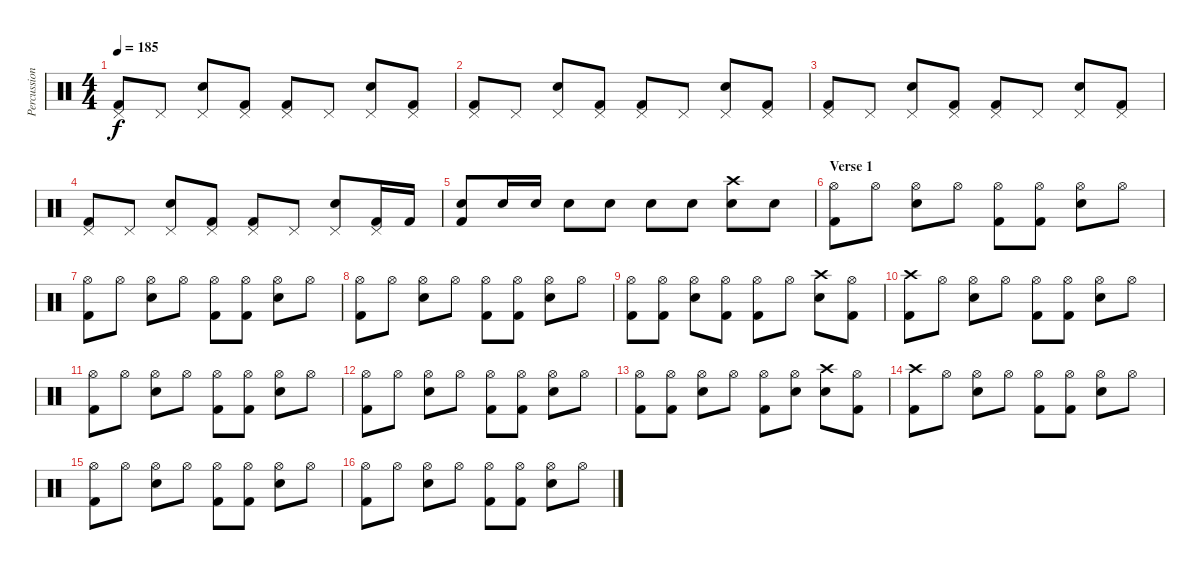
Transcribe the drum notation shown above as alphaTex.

\track ("Percussions" "Percussion") {instrument percussion}
\staff {score}
\articulation defaults
\ts (4 4)
\tempo 185
\clef neutral
\ks c
("Pedal Hi-Hat (hit)" "Kick (hit) 2").8{dy f} "Pedal Hi-Hat (hit)".8 ("Pedal Hi-Hat (hit)" "Snare (hit) 2").8 ("Pedal Hi-Hat (hit)" "Kick (hit) 2").8 ("Pedal Hi-Hat (hit)" "Kick (hit) 2").8 "Pedal Hi-Hat (hit)".8 ("Pedal Hi-Hat (hit)" "Snare (hit) 2").8 ("Pedal Hi-Hat (hit)" "Kick (hit) 2").8 |
("Pedal Hi-Hat (hit)" "Kick (hit) 2").8 "Pedal Hi-Hat (hit)".8 ("Pedal Hi-Hat (hit)" "Snare (hit) 2").8 ("Pedal Hi-Hat (hit)" "Kick (hit) 2").8 ("Pedal Hi-Hat (hit)" "Kick (hit) 2").8 "Pedal Hi-Hat (hit)".8 ("Pedal Hi-Hat (hit)" "Snare (hit) 2").8 ("Pedal Hi-Hat (hit)" "Kick (hit) 2").8 |
("Pedal Hi-Hat (hit)" "Kick (hit) 2").8 "Pedal Hi-Hat (hit)".8 ("Pedal Hi-Hat (hit)" "Snare (hit) 2").8 ("Pedal Hi-Hat (hit)" "Kick (hit) 2").8 ("Pedal Hi-Hat (hit)" "Kick (hit) 2").8 "Pedal Hi-Hat (hit)".8 ("Pedal Hi-Hat (hit)" "Snare (hit) 2").8 ("Pedal Hi-Hat (hit)" "Kick (hit) 2").8 |
("Pedal Hi-Hat (hit)" "Kick (hit) 2").8 "Pedal Hi-Hat (hit)".8 ("Pedal Hi-Hat (hit)" "Snare (hit) 2").8 ("Pedal Hi-Hat (hit)" "Kick (hit) 2").8 ("Pedal Hi-Hat (hit)" "Kick (hit) 2").8 "Pedal Hi-Hat (hit)".8 ("Pedal Hi-Hat (hit)" "Snare (hit) 2").8 ("Pedal Hi-Hat (hit)" "Kick (hit) 2").16 "Kick (hit) 2".16 |
("Snare (hit) 2" "Kick (hit) 2").8 "Snare (hit) 2".16 "Snare (hit) 2".16 "Snare (hit) 2".8 "Snare (hit) 2".8 "Snare (hit) 2".8 "Snare (hit) 2".8 ("Crash high (hit)" "Snare (hit) 2").8 "Snare (hit) 2".8 |
\section ("" "Verse 1")
("Hi-Hat (open)" "Kick (hit) 2").8 "Hi-Hat (open)".8 ("Hi-Hat (open)" "Snare (hit) 2").8 "Hi-Hat (open)".8 ("Hi-Hat (open)" "Kick (hit) 2").8 ("Hi-Hat (open)" "Kick (hit) 2").8 ("Hi-Hat (open)" "Snare (hit) 2").8 "Hi-Hat (open)".8 |
("Hi-Hat (open)" "Kick (hit) 2").8 "Hi-Hat (open)".8 ("Hi-Hat (open)" "Snare (hit) 2").8 "Hi-Hat (open)".8 ("Hi-Hat (open)" "Kick (hit) 2").8 ("Hi-Hat (open)" "Kick (hit) 2").8 ("Hi-Hat (open)" "Snare (hit) 2").8 "Hi-Hat (open)".8 |
("Hi-Hat (open)" "Kick (hit) 2").8 "Hi-Hat (open)".8 ("Hi-Hat (open)" "Snare (hit) 2").8 "Hi-Hat (open)".8 ("Hi-Hat (open)" "Kick (hit) 2").8 ("Hi-Hat (open)" "Kick (hit) 2").8 ("Hi-Hat (open)" "Snare (hit) 2").8 "Hi-Hat (open)".8 |
("Hi-Hat (open)" "Kick (hit) 2").8 ("Hi-Hat (open)" "Kick (hit) 2").8 ("Hi-Hat (open)" "Snare (hit) 2").8 ("Hi-Hat (open)" "Kick (hit) 2").8 ("Hi-Hat (open)" "Kick (hit) 2").8 "Hi-Hat (open)".8 ("Crash high (hit)" "Snare (hit) 2").8 ("Hi-Hat (open)" "Kick (hit) 2").8 |
("Crash high (hit)" "Kick (hit) 2").8 "Hi-Hat (open)".8 ("Hi-Hat (open)" "Snare (hit) 2").8 "Hi-Hat (open)".8 ("Hi-Hat (open)" "Kick (hit) 2").8 ("Hi-Hat (open)" "Kick (hit) 2").8 ("Hi-Hat (open)" "Snare (hit) 2").8 "Hi-Hat (open)".8 |
("Hi-Hat (open)" "Kick (hit) 2").8 "Hi-Hat (open)".8 ("Hi-Hat (open)" "Snare (hit) 2").8 "Hi-Hat (open)".8 ("Hi-Hat (open)" "Kick (hit) 2").8 ("Hi-Hat (open)" "Kick (hit) 2").8 ("Hi-Hat (open)" "Snare (hit) 2").8 "Hi-Hat (open)".8 |
("Hi-Hat (open)" "Kick (hit) 2").8 "Hi-Hat (open)".8 ("Hi-Hat (open)" "Snare (hit) 2").8 "Hi-Hat (open)".8 ("Hi-Hat (open)" "Kick (hit) 2").8 ("Hi-Hat (open)" "Kick (hit) 2").8 ("Hi-Hat (open)" "Snare (hit) 2").8 "Hi-Hat (open)".8 |
("Hi-Hat (open)" "Kick (hit) 2").8 ("Hi-Hat (open)" "Kick (hit) 2").8 ("Hi-Hat (open)" "Snare (hit) 2").8 "Hi-Hat (open)".8 ("Hi-Hat (open)" "Kick (hit) 2").8 ("Hi-Hat (open)" "Snare (hit) 2").8 ("Crash high (hit)" "Snare (hit) 2").8 ("Hi-Hat (open)" "Kick (hit) 2").8 |
("Crash high (hit)" "Kick (hit) 2").8 "Hi-Hat (open)".8 ("Hi-Hat (open)" "Snare (hit) 2").8 "Hi-Hat (open)".8 ("Hi-Hat (open)" "Kick (hit) 2").8 ("Hi-Hat (open)" "Kick (hit) 2").8 ("Hi-Hat (open)" "Snare (hit) 2").8 "Hi-Hat (open)".8 |
("Hi-Hat (open)" "Kick (hit) 2").8 "Hi-Hat (open)".8 ("Hi-Hat (open)" "Snare (hit) 2").8 "Hi-Hat (open)".8 ("Hi-Hat (open)" "Kick (hit) 2").8 ("Hi-Hat (open)" "Kick (hit) 2").8 ("Hi-Hat (open)" "Snare (hit) 2").8 "Hi-Hat (open)".8 |
("Hi-Hat (open)" "Kick (hit) 2").8 "Hi-Hat (open)".8 ("Hi-Hat (open)" "Snare (hit) 2").8 "Hi-Hat (open)".8 ("Hi-Hat (open)" "Kick (hit) 2").8 ("Hi-Hat (open)" "Kick (hit) 2").8 ("Hi-Hat (open)" "Snare (hit) 2").8 "Hi-Hat (open)".8
